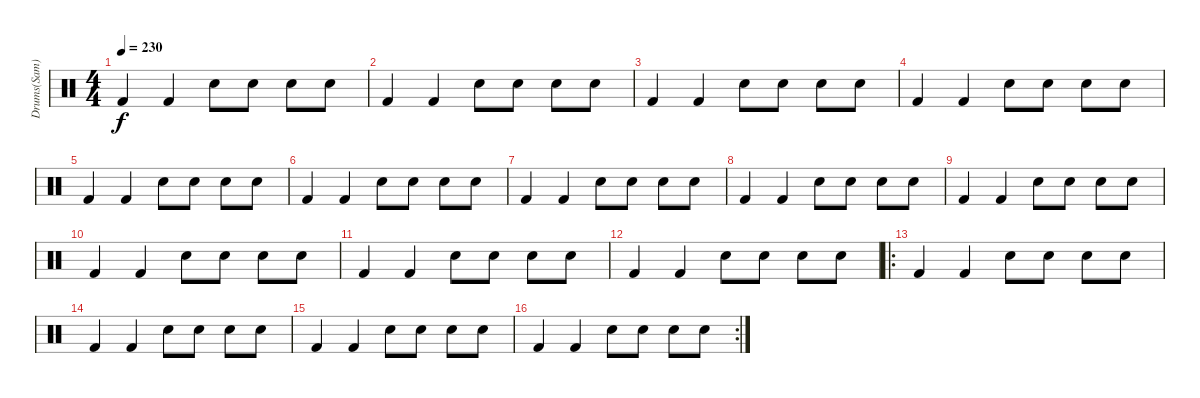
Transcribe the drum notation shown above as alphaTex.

\track ("Drums(Sam)" "Drums(Sam)") {instrument percussion}
\staff {score}
\articulation defaults
\ts (4 4)
\tempo 230
\clef neutral
\ks c "Kick (hit) 2".4{dy f} "Kick (hit) 2".4 "Snare (hit) 2".8 "Snare (hit) 2".8 "Snare (hit) 2".8 "Snare (hit) 2".8
|
"Kick (hit) 2".4 "Kick (hit) 2".4 "Snare (hit) 2".8 "Snare (hit) 2".8 "Snare (hit) 2".8 "Snare (hit) 2".8 |
"Kick (hit) 2".4 "Kick (hit) 2".4 "Snare (hit) 2".8 "Snare (hit) 2".8 "Snare (hit) 2".8 "Snare (hit) 2".8 |
"Kick (hit) 2".4 "Kick (hit) 2".4 "Snare (hit) 2".8 "Snare (hit) 2".8 "Snare (hit) 2".8 "Snare (hit) 2".8 |
"Kick (hit) 2".4 "Kick (hit) 2".4 "Snare (hit) 2".8 "Snare (hit) 2".8 "Snare (hit) 2".8 "Snare (hit) 2".8 |
"Kick (hit) 2".4 "Kick (hit) 2".4 "Snare (hit) 2".8 "Snare (hit) 2".8 "Snare (hit) 2".8 "Snare (hit) 2".8 |
"Kick (hit) 2".4 "Kick (hit) 2".4 "Snare (hit) 2".8 "Snare (hit) 2".8 "Snare (hit) 2".8 "Snare (hit) 2".8 |
"Kick (hit) 2".4 "Kick (hit) 2".4 "Snare (hit) 2".8 "Snare (hit) 2".8 "Snare (hit) 2".8 "Snare (hit) 2".8 |
"Kick (hit) 2".4 "Kick (hit) 2".4 "Snare (hit) 2".8 "Snare (hit) 2".8 "Snare (hit) 2".8 "Snare (hit) 2".8 |
"Kick (hit) 2".4 "Kick (hit) 2".4 "Snare (hit) 2".8 "Snare (hit) 2".8 "Snare (hit) 2".8 "Snare (hit) 2".8 |
"Kick (hit) 2".4 "Kick (hit) 2".4 "Snare (hit) 2".8 "Snare (hit) 2".8 "Snare (hit) 2".8 "Snare (hit) 2".8 |
"Kick (hit) 2".4 "Kick (hit) 2".4 "Snare (hit) 2".8 "Snare (hit) 2".8 "Snare (hit) 2".8 "Snare (hit) 2".8 |
\ro "Kick (hit) 2".4 "Kick (hit) 2".4 "Snare (hit) 2".8 "Snare (hit) 2".8 "Snare (hit) 2".8 "Snare (hit) 2".8
|
"Kick (hit) 2".4 "Kick (hit) 2".4 "Snare (hit) 2".8 "Snare (hit) 2".8 "Snare (hit) 2".8 "Snare (hit) 2".8 |
"Kick (hit) 2".4 "Kick (hit) 2".4 "Snare (hit) 2".8 "Snare (hit) 2".8 "Snare (hit) 2".8 "Snare (hit) 2".8 |
\rc 2 "Kick (hit) 2".4 "Kick (hit) 2".4 "Snare (hit) 2".8 "Snare (hit) 2".8 "Snare (hit) 2".8 "Snare (hit) 2".8
